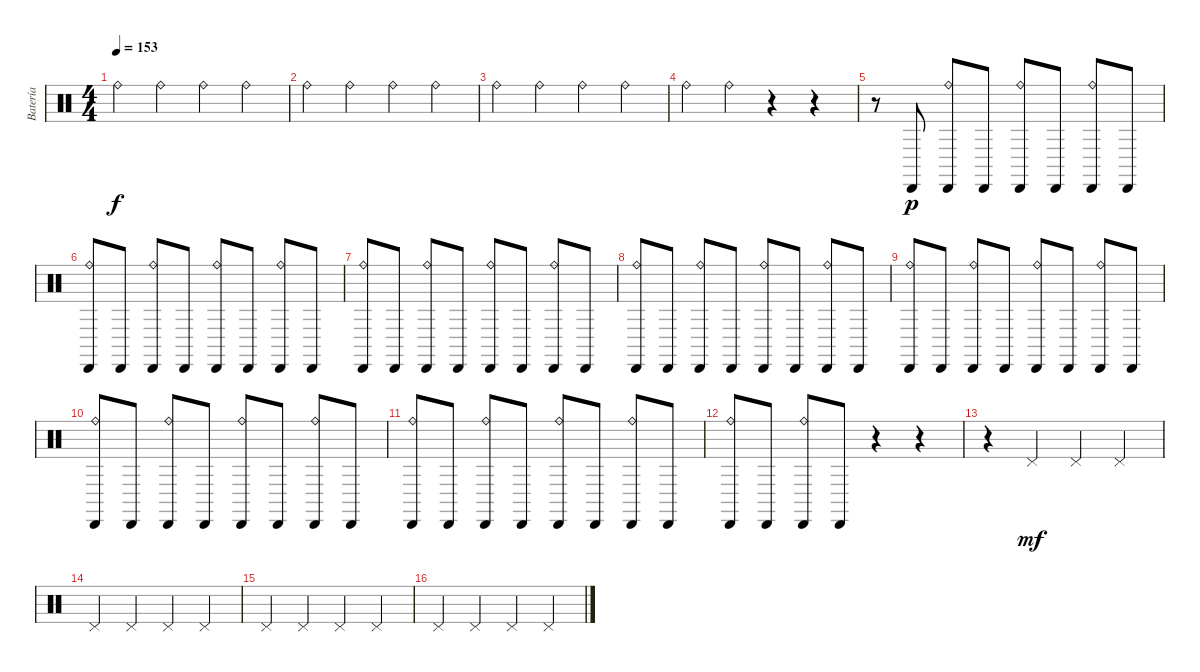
\track ("Batería" "Batería") {instrument percussion}
\staff {score}
\articulation defaults
\ts (4 4)
\tempo 153
\clef neutral
\ks c "Ride (bell)".4{dy f} "Ride (bell)".4 "Ride (bell)".4 "Ride (bell)".4
|
"Ride (bell)".4 "Ride (bell)".4 "Ride (bell)".4 "Ride (bell)".4 |
"Ride (bell)".4 "Ride (bell)".4 "Ride (bell)".4 "Ride (bell)".4 |
"Ride (bell)".4 "Ride (bell)".4 r.4 r.4 |
r.8 "Cabasa (hit)".8{dy p} ("Cabasa (hit)" "Ride (bell)").8 "Cabasa (hit)".8 ("Cabasa (hit)" "Ride (bell)").8 "Cabasa (hit)".8 ("Cabasa (hit)" "Ride (bell)").8 "Cabasa (hit)".8 |
("Cabasa (hit)" "Ride (bell)").8 "Cabasa (hit)".8 ("Cabasa (hit)" "Ride (bell)").8 "Cabasa (hit)".8 ("Cabasa (hit)" "Ride (bell)").8 "Cabasa (hit)".8 ("Cabasa (hit)" "Ride (bell)").8 "Cabasa (hit)".8 |
("Cabasa (hit)" "Ride (bell)").8 "Cabasa (hit)".8 ("Cabasa (hit)" "Ride (bell)").8 "Cabasa (hit)".8 ("Cabasa (hit)" "Ride (bell)").8 "Cabasa (hit)".8 ("Cabasa (hit)" "Ride (bell)").8 "Cabasa (hit)".8 |
("Cabasa (hit)" "Ride (bell)").8 "Cabasa (hit)".8 ("Cabasa (hit)" "Ride (bell)").8 "Cabasa (hit)".8 ("Cabasa (hit)" "Ride (bell)").8 "Cabasa (hit)".8 ("Cabasa (hit)" "Ride (bell)").8 "Cabasa (hit)".8 |
("Cabasa (hit)" "Ride (bell)").8 "Cabasa (hit)".8 ("Cabasa (hit)" "Ride (bell)").8 "Cabasa (hit)".8 ("Cabasa (hit)" "Ride (bell)").8 "Cabasa (hit)".8 ("Cabasa (hit)" "Ride (bell)").8 "Cabasa (hit)".8 |
("Cabasa (hit)" "Ride (bell)").8 "Cabasa (hit)".8 ("Cabasa (hit)" "Ride (bell)").8 "Cabasa (hit)".8 ("Cabasa (hit)" "Ride (bell)").8 "Cabasa (hit)".8 ("Cabasa (hit)" "Ride (bell)").8 "Cabasa (hit)".8 |
("Cabasa (hit)" "Ride (bell)").8 "Cabasa (hit)".8 ("Cabasa (hit)" "Ride (bell)").8 "Cabasa (hit)".8 ("Cabasa (hit)" "Ride (bell)").8 "Cabasa (hit)".8 ("Cabasa (hit)" "Ride (bell)").8 "Cabasa (hit)".8 |
("Cabasa (hit)" "Ride (bell)").8 "Cabasa (hit)".8 ("Cabasa (hit)" "Ride (bell)").8 "Cabasa (hit)".8 r.4 r.4 |
r.4 "Pedal Hi-Hat (hit)".4{dy mf} "Pedal Hi-Hat (hit)".4 "Pedal Hi-Hat (hit)".4 |
"Pedal Hi-Hat (hit)".4 "Pedal Hi-Hat (hit)".4 "Pedal Hi-Hat (hit)".4 "Pedal Hi-Hat (hit)".4 |
"Pedal Hi-Hat (hit)".4 "Pedal Hi-Hat (hit)".4 "Pedal Hi-Hat (hit)".4 "Pedal Hi-Hat (hit)".4 |
"Pedal Hi-Hat (hit)".4 "Pedal Hi-Hat (hit)".4 "Pedal Hi-Hat (hit)".4 "Pedal Hi-Hat (hit)".4
